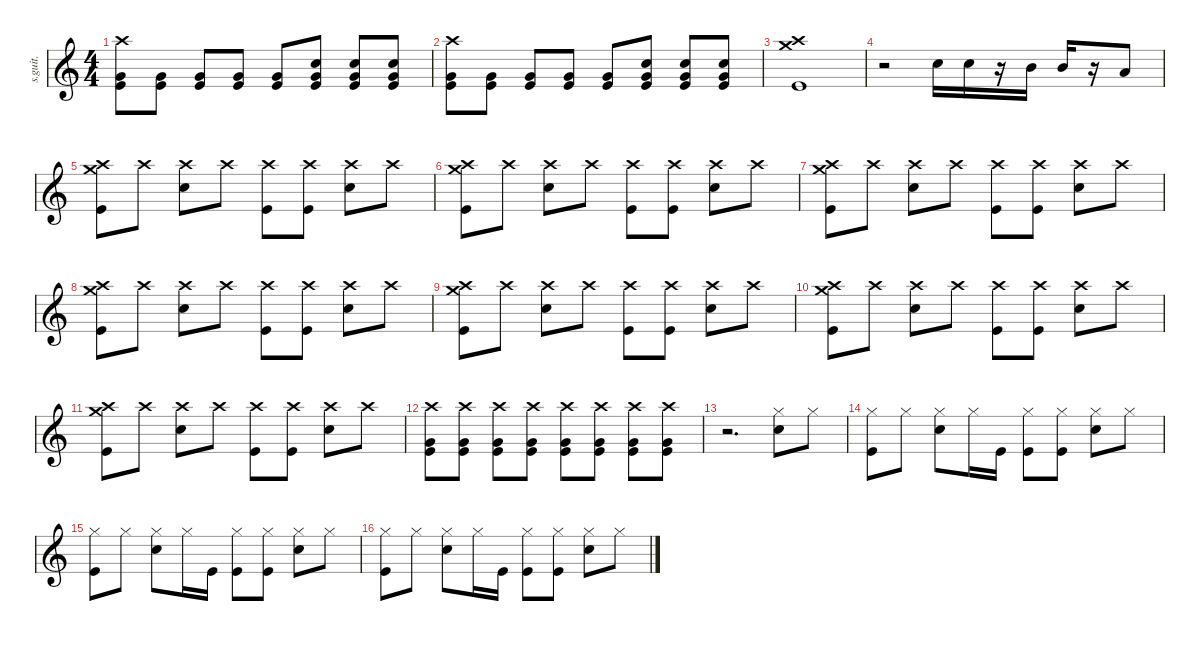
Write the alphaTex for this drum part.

\defaultSystemsLayout 4
\hideDynamics
\bracketExtendMode nobrackets
\track ("Drumkit" "s.guit.") {instrument percussion}
\staff {score}
\articulation defaults
\ts (4 4)
\tempo (65 hide)
\clef g2
\ks c
("Kick (hit)" "Very Low Tom (hit)" "Crash high (hit)").8{lyrics (0 "") lyrics (1 "") lyrics (2 "") lyrics (3 "") lyrics (4 "") dy mf} ("Very Low Tom (hit)" "Kick (hit)").8{lyrics (0 "") lyrics (1 "") lyrics (2 "") lyrics (3 "") lyrics (4 "")} ("Very Low Tom (hit)" "Kick (hit)").8{lyrics (0 "") lyrics (1 "") lyrics (2 "") lyrics (3 "") lyrics (4 "")} ("Kick (hit)" "Very Low Tom (hit)").8{lyrics (0 "") lyrics (1 "") lyrics (2 "") lyrics (3 "") lyrics (4 "")} ("Very Low Tom (hit)" "Kick (hit)").8{lyrics (0 "") lyrics (1 "") lyrics (2 "") lyrics (3 "") lyrics (4 "")} ("Snare (hit) 2" "Very Low Tom (hit)" "Kick (hit)").8{lyrics (0 "") lyrics (1 "") lyrics (2 "") lyrics (3 "") lyrics (4 "")} ("Snare (hit) 2" "Very Low Tom (hit)" "Kick (hit)").8{lyrics (0 "") lyrics (1 "") lyrics (2 "") lyrics (3 "") lyrics (4 "")} ("Snare (hit) 2" "Very Low Tom (hit)" "Kick (hit)").8{lyrics (0 "") lyrics (1 "") lyrics (2 "") lyrics (3 "") lyrics (4 "")} |
("Kick (hit)" "Very Low Tom (hit)" "Crash high (hit)").8{lyrics (0 "") lyrics (1 "") lyrics (2 "") lyrics (3 "") lyrics (4 "")} ("Very Low Tom (hit)" "Kick (hit)").8{lyrics (0 "") lyrics (1 "") lyrics (2 "") lyrics (3 "") lyrics (4 "")} ("Very Low Tom (hit)" "Kick (hit)").8{lyrics (0 "") lyrics (1 "") lyrics (2 "") lyrics (3 "") lyrics (4 "")} ("Kick (hit)" "Very Low Tom (hit)").8{lyrics (0 "") lyrics (1 "") lyrics (2 "") lyrics (3 "") lyrics (4 "")} ("Very Low Tom (hit)" "Kick (hit)").8{lyrics (0 "") lyrics (1 "") lyrics (2 "") lyrics (3 "") lyrics (4 "")} ("Snare (hit) 2" "Very Low Tom (hit)" "Kick (hit)").8{lyrics (0 "") lyrics (1 "") lyrics (2 "") lyrics (3 "") lyrics (4 "")} ("Snare (hit) 2" "Very Low Tom (hit)" "Kick (hit)").8{lyrics (0 "") lyrics (1 "") lyrics (2 "") lyrics (3 "") lyrics (4 "")} ("Very Low Tom (hit)" "Kick (hit)" "Snare (hit) 2").8{lyrics (0 "") lyrics (1 "") lyrics (2 "") lyrics (3 "") lyrics (4 "")} |
("Kick (hit)" "Crash medium (hit)" "Crash high (hit)").1{lyrics (0 "") lyrics (1 "") lyrics (2 "") lyrics (3 "") lyrics (4 "")} |
r.2 "Snare (hit) 2".16{lyrics (0 "") lyrics (1 "") lyrics (2 "") lyrics (3 "") lyrics (4 "")} "Snare (hit) 2".16{lyrics (0 "") lyrics (1 "") lyrics (2 "") lyrics (3 "") lyrics (4 "")} r.16 "Mid Tom (hit)".16{lyrics (0 "") lyrics (1 "") lyrics (2 "") lyrics (3 "") lyrics (4 "")} "Mid Tom (hit)".16{lyrics (0 "") lyrics (1 "") lyrics (2 "") lyrics (3 "") lyrics (4 "")} r.16 "Low Tom (hit)".8{lyrics (0 "") lyrics (1 "") lyrics (2 "") lyrics (3 "") lyrics (4 "")} |
("Crash high (hit)" "Crash medium (hit)" "Kick (hit)").8{lyrics (0 "") lyrics (1 "") lyrics (2 "") lyrics (3 "") lyrics (4 "")} "Crash high (hit)".8{lyrics (0 "") lyrics (1 "") lyrics (2 "") lyrics (3 "") lyrics (4 "")} ("Crash high (hit)" "Snare (hit) 2").8{lyrics (0 "") lyrics (1 "") lyrics (2 "") lyrics (3 "") lyrics (4 "")} "Crash high (hit)".8{lyrics (0 "") lyrics (1 "") lyrics (2 "") lyrics (3 "") lyrics (4 "")} ("Crash high (hit)" "Kick (hit)").8{lyrics (0 "") lyrics (1 "") lyrics (2 "") lyrics (3 "") lyrics (4 "")} ("Crash high (hit)" "Kick (hit)").8{lyrics (0 "") lyrics (1 "") lyrics (2 "") lyrics (3 "") lyrics (4 "")} ("Crash high (hit)" "Snare (hit) 2").8{lyrics (0 "") lyrics (1 "") lyrics (2 "") lyrics (3 "") lyrics (4 "")} "Crash high (hit)".8{lyrics (0 "") lyrics (1 "") lyrics (2 "") lyrics (3 "") lyrics (4 "")} |
("Crash high (hit)" "Crash medium (hit)" "Kick (hit)").8{lyrics (0 "") lyrics (1 "") lyrics (2 "") lyrics (3 "") lyrics (4 "")} "Crash high (hit)".8{lyrics (0 "") lyrics (1 "") lyrics (2 "") lyrics (3 "") lyrics (4 "")} ("Crash high (hit)" "Snare (hit) 2").8{lyrics (0 "") lyrics (1 "") lyrics (2 "") lyrics (3 "") lyrics (4 "")} "Crash high (hit)".8{lyrics (0 "") lyrics (1 "") lyrics (2 "") lyrics (3 "") lyrics (4 "")} ("Crash high (hit)" "Kick (hit)").8{lyrics (0 "") lyrics (1 "") lyrics (2 "") lyrics (3 "") lyrics (4 "")} ("Crash high (hit)" "Kick (hit)").8{lyrics (0 "") lyrics (1 "") lyrics (2 "") lyrics (3 "") lyrics (4 "")} ("Crash high (hit)" "Snare (hit) 2").8{lyrics (0 "") lyrics (1 "") lyrics (2 "") lyrics (3 "") lyrics (4 "")} "Crash high (hit)".8{lyrics (0 "") lyrics (1 "") lyrics (2 "") lyrics (3 "") lyrics (4 "")} |
("Crash high (hit)" "Crash medium (hit)" "Kick (hit)").8{lyrics (0 "") lyrics (1 "") lyrics (2 "") lyrics (3 "") lyrics (4 "")} "Crash high (hit)".8{lyrics (0 "") lyrics (1 "") lyrics (2 "") lyrics (3 "") lyrics (4 "")} ("Crash high (hit)" "Snare (hit) 2").8{lyrics (0 "") lyrics (1 "") lyrics (2 "") lyrics (3 "") lyrics (4 "")} "Crash high (hit)".8{lyrics (0 "") lyrics (1 "") lyrics (2 "") lyrics (3 "") lyrics (4 "")} ("Crash high (hit)" "Kick (hit)").8{lyrics (0 "") lyrics (1 "") lyrics (2 "") lyrics (3 "") lyrics (4 "")} ("Crash high (hit)" "Kick (hit)").8{lyrics (0 "") lyrics (1 "") lyrics (2 "") lyrics (3 "") lyrics (4 "")} ("Crash high (hit)" "Snare (hit) 2").8{lyrics (0 "") lyrics (1 "") lyrics (2 "") lyrics (3 "") lyrics (4 "")} "Crash high (hit)".8{lyrics (0 "") lyrics (1 "") lyrics (2 "") lyrics (3 "") lyrics (4 "")} |
("Crash high (hit)" "Crash medium (hit)" "Kick (hit)").8{lyrics (0 "") lyrics (1 "") lyrics (2 "") lyrics (3 "") lyrics (4 "")} "Crash high (hit)".8{lyrics (0 "") lyrics (1 "") lyrics (2 "") lyrics (3 "") lyrics (4 "")} ("Crash high (hit)" "Snare (hit) 2").8{lyrics (0 "") lyrics (1 "") lyrics (2 "") lyrics (3 "") lyrics (4 "")} "Crash high (hit)".8{lyrics (0 "") lyrics (1 "") lyrics (2 "") lyrics (3 "") lyrics (4 "")} ("Crash high (hit)" "Kick (hit)").8{lyrics (0 "") lyrics (1 "") lyrics (2 "") lyrics (3 "") lyrics (4 "")} ("Crash high (hit)" "Kick (hit)").8{lyrics (0 "") lyrics (1 "") lyrics (2 "") lyrics (3 "") lyrics (4 "")} ("Crash high (hit)" "Snare (hit) 2").8{lyrics (0 "") lyrics (1 "") lyrics (2 "") lyrics (3 "") lyrics (4 "")} "Crash high (hit)".8{lyrics (0 "") lyrics (1 "") lyrics (2 "") lyrics (3 "") lyrics (4 "")} |
("Crash high (hit)" "Crash medium (hit)" "Kick (hit)").8{lyrics (0 "") lyrics (1 "") lyrics (2 "") lyrics (3 "") lyrics (4 "")} "Crash high (hit)".8{lyrics (0 "") lyrics (1 "") lyrics (2 "") lyrics (3 "") lyrics (4 "")} ("Crash high (hit)" "Snare (hit) 2").8{lyrics (0 "") lyrics (1 "") lyrics (2 "") lyrics (3 "") lyrics (4 "")} "Crash high (hit)".8{lyrics (0 "") lyrics (1 "") lyrics (2 "") lyrics (3 "") lyrics (4 "")} ("Crash high (hit)" "Kick (hit)").8{lyrics (0 "") lyrics (1 "") lyrics (2 "") lyrics (3 "") lyrics (4 "")} ("Crash high (hit)" "Kick (hit)").8{lyrics (0 "") lyrics (1 "") lyrics (2 "") lyrics (3 "") lyrics (4 "")} ("Crash high (hit)" "Snare (hit) 2").8{lyrics (0 "") lyrics (1 "") lyrics (2 "") lyrics (3 "") lyrics (4 "")} "Crash high (hit)".8{lyrics (0 "") lyrics (1 "") lyrics (2 "") lyrics (3 "") lyrics (4 "")} |
("Crash high (hit)" "Crash medium (hit)" "Kick (hit)").8{lyrics (0 "") lyrics (1 "") lyrics (2 "") lyrics (3 "") lyrics (4 "")} "Crash high (hit)".8{lyrics (0 "") lyrics (1 "") lyrics (2 "") lyrics (3 "") lyrics (4 "")} ("Crash high (hit)" "Snare (hit) 2").8{lyrics (0 "") lyrics (1 "") lyrics (2 "") lyrics (3 "") lyrics (4 "")} "Crash high (hit)".8{lyrics (0 "") lyrics (1 "") lyrics (2 "") lyrics (3 "") lyrics (4 "")} ("Crash high (hit)" "Kick (hit)").8{lyrics (0 "") lyrics (1 "") lyrics (2 "") lyrics (3 "") lyrics (4 "")} ("Crash high (hit)" "Kick (hit)").8{lyrics (0 "") lyrics (1 "") lyrics (2 "") lyrics (3 "") lyrics (4 "")} ("Crash high (hit)" "Snare (hit) 2").8{lyrics (0 "") lyrics (1 "") lyrics (2 "") lyrics (3 "") lyrics (4 "")} "Crash high (hit)".8{lyrics (0 "") lyrics (1 "") lyrics (2 "") lyrics (3 "") lyrics (4 "")} |
("Crash high (hit)" "Crash medium (hit)" "Kick (hit)").8{lyrics (0 "") lyrics (1 "") lyrics (2 "") lyrics (3 "") lyrics (4 "")} "Crash high (hit)".8{lyrics (0 "") lyrics (1 "") lyrics (2 "") lyrics (3 "") lyrics (4 "")} ("Crash high (hit)" "Snare (hit) 2").8{lyrics (0 "") lyrics (1 "") lyrics (2 "") lyrics (3 "") lyrics (4 "")} "Crash high (hit)".8{lyrics (0 "") lyrics (1 "") lyrics (2 "") lyrics (3 "") lyrics (4 "")} ("Crash high (hit)" "Kick (hit)").8{lyrics (0 "") lyrics (1 "") lyrics (2 "") lyrics (3 "") lyrics (4 "")} ("Crash high (hit)" "Kick (hit)").8{lyrics (0 "") lyrics (1 "") lyrics (2 "") lyrics (3 "") lyrics (4 "")} ("Crash high (hit)" "Snare (hit) 2").8{lyrics (0 "") lyrics (1 "") lyrics (2 "") lyrics (3 "") lyrics (4 "")} "Crash high (hit)".8{lyrics (0 "") lyrics (1 "") lyrics (2 "") lyrics (3 "") lyrics (4 "")} |
("Crash high (hit)" "Kick (hit)" "Very Low Tom (hit)").8{lyrics (0 "") lyrics (1 "") lyrics (2 "") lyrics (3 "") lyrics (4 "")} ("Crash high (hit)" "Kick (hit)" "Very Low Tom (hit)").8{lyrics (0 "") lyrics (1 "") lyrics (2 "") lyrics (3 "") lyrics (4 "")} ("Crash high (hit)" "Kick (hit)" "Very Low Tom (hit)").8{lyrics (0 "") lyrics (1 "") lyrics (2 "") lyrics (3 "") lyrics (4 "")} ("Crash high (hit)" "Kick (hit)" "Very Low Tom (hit)").8{lyrics (0 "") lyrics (1 "") lyrics (2 "") lyrics (3 "") lyrics (4 "")} ("Crash high (hit)" "Kick (hit)" "Very Low Tom (hit)").8{lyrics (0 "") lyrics (1 "") lyrics (2 "") lyrics (3 "") lyrics (4 "")} ("Crash high (hit)" "Kick (hit)" "Very Low Tom (hit)").8{lyrics (0 "") lyrics (1 "") lyrics (2 "") lyrics (3 "") lyrics (4 "")} ("Crash high (hit)" "Kick (hit)" "Very Low Tom (hit)").8{lyrics (0 "") lyrics (1 "") lyrics (2 "") lyrics (3 "") lyrics (4 "")} ("Crash high (hit)" "Kick (hit)" "Very Low Tom (hit)").8{lyrics (0 "") lyrics (1 "") lyrics (2 "") lyrics (3 "") lyrics (4 "")} |
r.2{d} ("Snare (hit) 2" "Hi-Hat (closed)").8{lyrics (0 "") lyrics (1 "") lyrics (2 "") lyrics (3 "") lyrics (4 "")} "Hi-Hat (closed)".8{lyrics (0 "") lyrics (1 "") lyrics (2 "") lyrics (3 "") lyrics (4 "")} |
("Kick (hit)" "Hi-Hat (closed)").8{lyrics (0 "") lyrics (1 "") lyrics (2 "") lyrics (3 "") lyrics (4 "")} "Hi-Hat (closed)".8{lyrics (0 "") lyrics (1 "") lyrics (2 "") lyrics (3 "") lyrics (4 "")} ("Hi-Hat (closed)" "Snare (hit) 2").8{lyrics (0 "") lyrics (1 "") lyrics (2 "") lyrics (3 "") lyrics (4 "")} "Hi-Hat (closed)".16{lyrics (0 "") lyrics (1 "") lyrics (2 "") lyrics (3 "") lyrics (4 "")} "Kick (hit)".16{lyrics (0 "") lyrics (1 "") lyrics (2 "") lyrics (3 "") lyrics (4 "") dy p} ("Hi-Hat (closed)" "Kick (hit)").8{lyrics (0 "") lyrics (1 "") lyrics (2 "") lyrics (3 "") lyrics (4 "") dy mf} ("Kick (hit)" "Hi-Hat (closed)").8{lyrics (0 "") lyrics (1 "") lyrics (2 "") lyrics (3 "") lyrics (4 "")} ("Hi-Hat (closed)" "Snare (hit) 2").8{lyrics (0 "") lyrics (1 "") lyrics (2 "") lyrics (3 "") lyrics (4 "")} "Hi-Hat (closed)".8{lyrics (0 "") lyrics (1 "") lyrics (2 "") lyrics (3 "") lyrics (4 "")} |
("Kick (hit)" "Hi-Hat (closed)").8{lyrics (0 "") lyrics (1 "") lyrics (2 "") lyrics (3 "") lyrics (4 "")} "Hi-Hat (closed)".8{lyrics (0 "") lyrics (1 "") lyrics (2 "") lyrics (3 "") lyrics (4 "")} ("Hi-Hat (closed)" "Snare (hit) 2").8{lyrics (0 "") lyrics (1 "") lyrics (2 "") lyrics (3 "") lyrics (4 "")} "Hi-Hat (closed)".16{lyrics (0 "") lyrics (1 "") lyrics (2 "") lyrics (3 "") lyrics (4 "")} "Kick (hit)".16{lyrics (0 "") lyrics (1 "") lyrics (2 "") lyrics (3 "") lyrics (4 "") dy p} ("Hi-Hat (closed)" "Kick (hit)").8{lyrics (0 "") lyrics (1 "") lyrics (2 "") lyrics (3 "") lyrics (4 "") dy mf} ("Kick (hit)" "Hi-Hat (closed)").8{lyrics (0 "") lyrics (1 "") lyrics (2 "") lyrics (3 "") lyrics (4 "")} ("Hi-Hat (closed)" "Snare (hit) 2").8{lyrics (0 "") lyrics (1 "") lyrics (2 "") lyrics (3 "") lyrics (4 "")} "Hi-Hat (closed)".8{lyrics (0 "") lyrics (1 "") lyrics (2 "") lyrics (3 "") lyrics (4 "")} |
("Kick (hit)" "Hi-Hat (closed)").8{lyrics (0 "") lyrics (1 "") lyrics (2 "") lyrics (3 "") lyrics (4 "")} "Hi-Hat (closed)".8{lyrics (0 "") lyrics (1 "") lyrics (2 "") lyrics (3 "") lyrics (4 "")} ("Hi-Hat (closed)" "Snare (hit) 2").8{lyrics (0 "") lyrics (1 "") lyrics (2 "") lyrics (3 "") lyrics (4 "")} "Hi-Hat (closed)".16{lyrics (0 "") lyrics (1 "") lyrics (2 "") lyrics (3 "") lyrics (4 "")} "Kick (hit)".16{lyrics (0 "") lyrics (1 "") lyrics (2 "") lyrics (3 "") lyrics (4 "") dy p} ("Hi-Hat (closed)" "Kick (hit)").8{lyrics (0 "") lyrics (1 "") lyrics (2 "") lyrics (3 "") lyrics (4 "") dy mf} ("Kick (hit)" "Hi-Hat (closed)").8{lyrics (0 "") lyrics (1 "") lyrics (2 "") lyrics (3 "") lyrics (4 "")} ("Hi-Hat (closed)" "Snare (hit) 2").8{lyrics (0 "") lyrics (1 "") lyrics (2 "") lyrics (3 "") lyrics (4 "")} "Hi-Hat (closed)".8{lyrics (0 "") lyrics (1 "") lyrics (2 "") lyrics (3 "") lyrics (4 "")}
